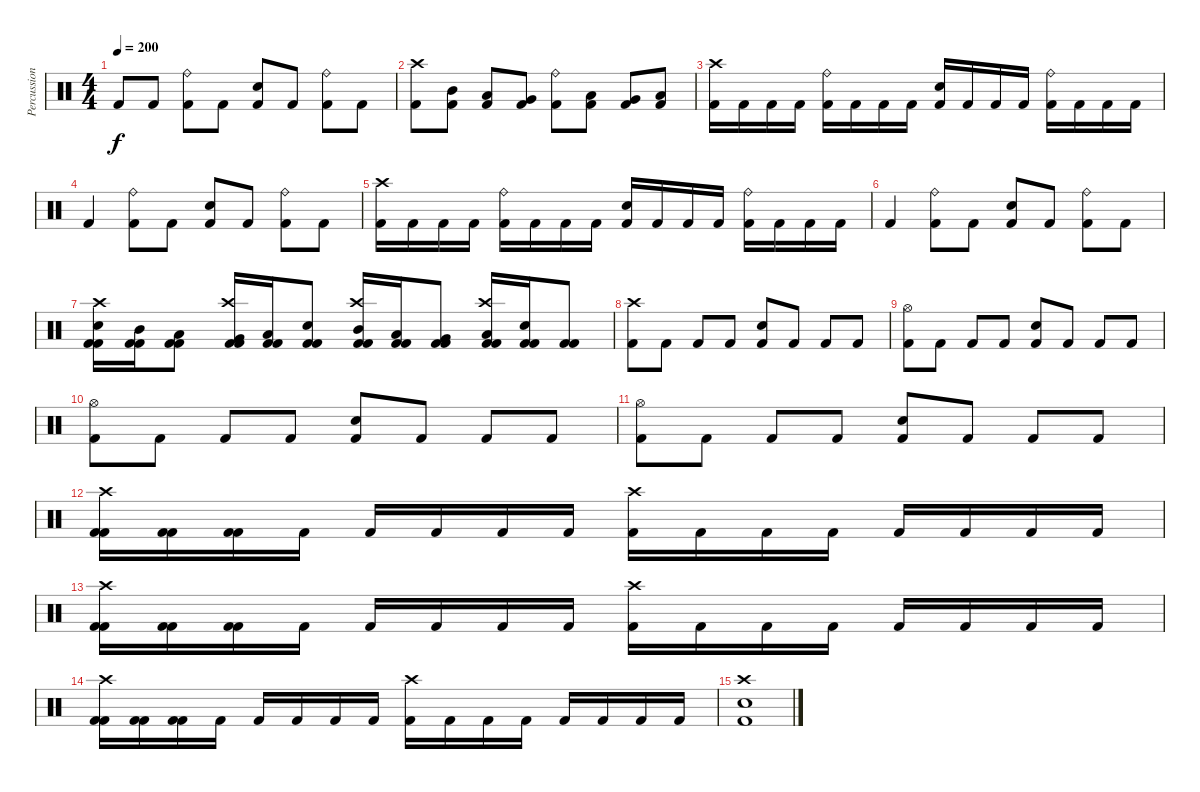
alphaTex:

\track ("Percussion" "Percussion") {instrument percussion}
\staff {score}
\articulation defaults
\ts (4 4)
\tempo 200
\clef neutral
\ks c "Kick (hit) 2".8{dy f} "Kick (hit) 2".8
("Ride (bell)" "Kick (hit) 2").8 "Kick (hit) 2".8 ("Electric Snare (hit)" "Kick (hit) 2").8 "Kick (hit) 2".8 ("Ride (bell)" "Kick (hit) 2").8 "Kick (hit) 2".8 |
("Crash high (hit)" "Kick (hit) 2").8 ("Mid Tom (hit)" "Kick (hit) 2").8 ("Low Tom (hit)" "Kick (hit) 2").8 ("Very Low Tom (hit)" "Kick (hit) 2").8 ("Ride (bell)" "Kick (hit) 2").8 ("Low Tom (hit)" "Kick (hit) 2").8 ("Very Low Tom (hit)" "Kick (hit) 2").8 ("Low Floor Tom (hit)" "Kick (hit) 2").8 |
("Crash high (hit)" "Kick (hit) 2").16 "Kick (hit) 2".16 "Kick (hit) 2".16 "Kick (hit) 2".16 ("Ride (bell)" "Kick (hit) 2").16 "Kick (hit) 2".16 "Kick (hit) 2".16 "Kick (hit) 2".16 ("Electric Snare (hit)" "Kick (hit) 2").16 "Kick (hit) 2".16 "Kick (hit) 2".16 "Kick (hit) 2".16 ("Ride (bell)" "Kick (hit) 2").16 "Kick (hit) 2".16 "Kick (hit) 2".16 "Kick (hit) 2".16 |
"Kick (hit) 2".4 ("Ride (bell)" "Kick (hit) 2").8 "Kick (hit) 2".8 ("Electric Snare (hit)" "Kick (hit) 2").8 "Kick (hit) 2".8 ("Ride (bell)" "Kick (hit) 2").8 "Kick (hit) 2".8 |
("Crash high (hit)" "Kick (hit) 2").16 "Kick (hit) 2".16 "Kick (hit) 2".16 "Kick (hit) 2".16 ("Ride (bell)" "Kick (hit) 2").16 "Kick (hit) 2".16 "Kick (hit) 2".16 "Kick (hit) 2".16 ("Electric Snare (hit)" "Kick (hit) 2").16 "Kick (hit) 2".16 "Kick (hit) 2".16 "Kick (hit) 2".16 ("Ride (bell)" "Kick (hit) 2").16 "Kick (hit) 2".16 "Kick (hit) 2".16 "Kick (hit) 2".16 |
"Kick (hit) 2".4 ("Ride (bell)" "Kick (hit) 2").8 "Kick (hit) 2".8 ("Electric Snare (hit)" "Kick (hit) 2").8 "Kick (hit) 2".8 ("Ride (bell)" "Kick (hit) 2").8 "Kick (hit) 2".8 |
("Crash high (hit)" "Electric Snare (hit)" "Kick (hit) 2" "Kick (hit) 2").16 ("Mid Tom (hit)" "Kick (hit) 2" "Kick (hit) 2").16 ("Low Tom (hit)" "Kick (hit) 2" "Kick (hit) 2").8 ("Crash high (hit)" "Very Low Tom (hit)" "Kick (hit) 2" "Kick (hit) 2").16 ("Low Floor Tom (hit)" "Kick (hit) 2" "Kick (hit) 2").16 ("Electric Snare (hit)" "Kick (hit) 2" "Kick (hit) 2").8 ("Crash high (hit)" "Mid Tom (hit)" "Kick (hit) 2" "Kick (hit) 2").16 ("Low Tom (hit)" "Kick (hit) 2" "Kick (hit) 2").16 ("Very Low Tom (hit)" "Kick (hit) 2" "Kick (hit) 2").8 ("Crash high (hit)" "Low Floor Tom (hit)" "Kick (hit) 2" "Kick (hit) 2").16 ("Electric Snare (hit)" "Kick (hit) 2" "Kick (hit) 2").16 ("Kick (hit) 2" "Kick (hit) 2").8 |
("Crash high (hit)" "Kick (hit) 2").8 "Kick (hit) 2".8 "Kick (hit) 2".8 "Kick (hit) 2".8 ("Electric Snare (hit)" "Kick (hit) 2").8 "Kick (hit) 2".8 "Kick (hit) 2".8 "Kick (hit) 2".8 |
("Hi-Hat (open)" "Kick (hit) 2").8 "Kick (hit) 2".8 "Kick (hit) 2".8 "Kick (hit) 2".8 ("Electric Snare (hit)" "Kick (hit) 2").8 "Kick (hit) 2".8 "Kick (hit) 2".8 "Kick (hit) 2".8 |
("Hi-Hat (open)" "Kick (hit) 2").8 "Kick (hit) 2".8 "Kick (hit) 2".8 "Kick (hit) 2".8 ("Electric Snare (hit)" "Kick (hit) 2").8 "Kick (hit) 2".8 "Kick (hit) 2".8 "Kick (hit) 2".8 |
("Hi-Hat (open)" "Kick (hit) 2").8 "Kick (hit) 2".8 "Kick (hit) 2".8 "Kick (hit) 2".8 ("Electric Snare (hit)" "Kick (hit) 2").8 "Kick (hit) 2".8 "Kick (hit) 2".8 "Kick (hit) 2".8 |
("Crash high (hit)" "Kick (hit) 2" "Kick (hit) 2").16 ("Kick (hit) 2" "Kick (hit) 2").16 ("Kick (hit) 2" "Kick (hit) 2").16 "Kick (hit) 2".16 "Kick (hit) 2".16 "Kick (hit) 2".16 "Kick (hit) 2".16 "Kick (hit) 2".16 ("Crash high (hit)" "Kick (hit) 2").16 "Kick (hit) 2".16 "Kick (hit) 2".16 "Kick (hit) 2".16 "Kick (hit) 2".16 "Kick (hit) 2".16 "Kick (hit) 2".16 "Kick (hit) 2".16 |
("Crash high (hit)" "Kick (hit) 2" "Kick (hit) 2").16 ("Kick (hit) 2" "Kick (hit) 2").16 ("Kick (hit) 2" "Kick (hit) 2").16 "Kick (hit) 2".16 "Kick (hit) 2".16 "Kick (hit) 2".16 "Kick (hit) 2".16 "Kick (hit) 2".16 ("Crash high (hit)" "Kick (hit) 2").16 "Kick (hit) 2".16 "Kick (hit) 2".16 "Kick (hit) 2".16 "Kick (hit) 2".16 "Kick (hit) 2".16 "Kick (hit) 2".16 "Kick (hit) 2".16 |
("Crash high (hit)" "Kick (hit) 2" "Kick (hit) 2").16 ("Kick (hit) 2" "Kick (hit) 2").16 ("Kick (hit) 2" "Kick (hit) 2").16 "Kick (hit) 2".16 "Kick (hit) 2".16 "Kick (hit) 2".16 "Kick (hit) 2".16 "Kick (hit) 2".16 ("Crash high (hit)" "Kick (hit) 2").16 "Kick (hit) 2".16 "Kick (hit) 2".16 "Kick (hit) 2".16 "Kick (hit) 2".16 "Kick (hit) 2".16 "Kick (hit) 2".16 "Kick (hit) 2".16 |
("Crash high (hit)" "Electric Snare (hit)" "Kick (hit) 2").1
